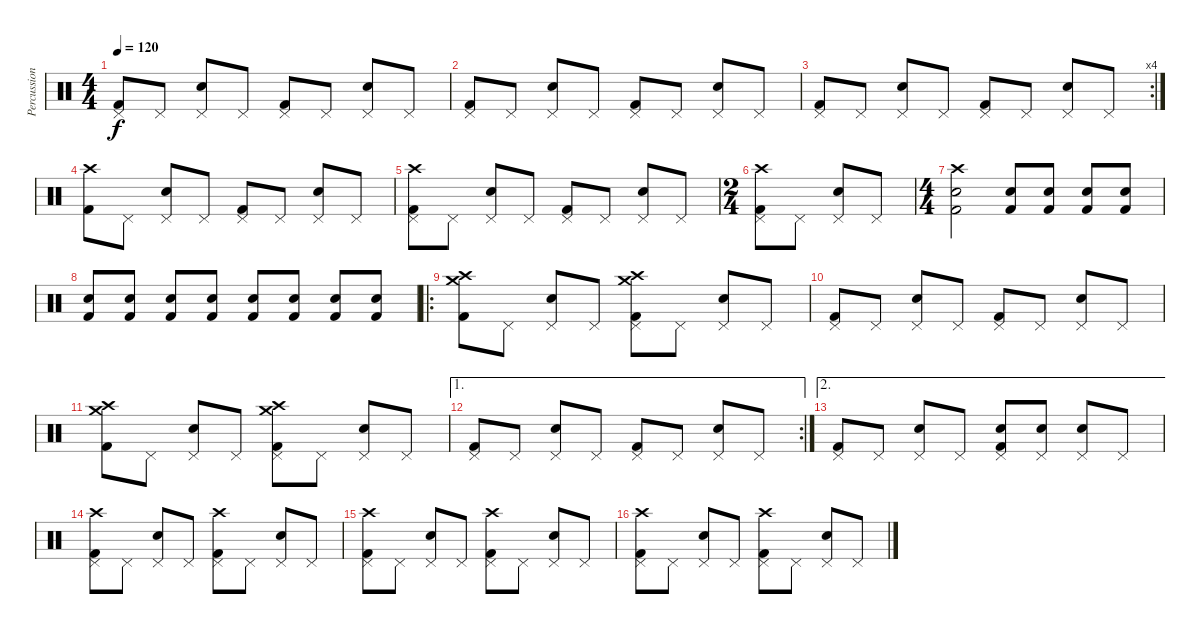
\track ("Percussions" "Percussion") {instrument percussion}
\staff {score}
\articulation defaults
\ts (4 4)
\tempo 120
\clef neutral
\ks c
("Pedal Hi-Hat (hit)" "Kick (hit) 2").8{dy f} "Pedal Hi-Hat (hit)".8 ("Pedal Hi-Hat (hit)" "Snare (hit) 2").8 "Pedal Hi-Hat (hit)".8 ("Pedal Hi-Hat (hit)" "Kick (hit) 2").8 "Pedal Hi-Hat (hit)".8 ("Pedal Hi-Hat (hit)" "Snare (hit) 2").8 "Pedal Hi-Hat (hit)".8 |
("Pedal Hi-Hat (hit)" "Kick (hit) 2").8 "Pedal Hi-Hat (hit)".8 ("Pedal Hi-Hat (hit)" "Snare (hit) 2").8 "Pedal Hi-Hat (hit)".8 ("Pedal Hi-Hat (hit)" "Kick (hit) 2").8 "Pedal Hi-Hat (hit)".8 ("Pedal Hi-Hat (hit)" "Snare (hit) 2").8 "Pedal Hi-Hat (hit)".8 |
\rc 4
("Pedal Hi-Hat (hit)" "Kick (hit) 2").8 "Pedal Hi-Hat (hit)".8 ("Pedal Hi-Hat (hit)" "Snare (hit) 2").8 "Pedal Hi-Hat (hit)".8 ("Pedal Hi-Hat (hit)" "Kick (hit) 2").8 "Pedal Hi-Hat (hit)".8 ("Pedal Hi-Hat (hit)" "Snare (hit) 2").8 "Pedal Hi-Hat (hit)".8 |
("Crash high (hit)" "Kick (hit) 2").8 "Pedal Hi-Hat (hit)".8 ("Pedal Hi-Hat (hit)" "Snare (hit) 2").8 "Pedal Hi-Hat (hit)".8 ("Pedal Hi-Hat (hit)" "Kick (hit) 2").8 "Pedal Hi-Hat (hit)".8 ("Pedal Hi-Hat (hit)" "Snare (hit) 2").8 "Pedal Hi-Hat (hit)".8 |
("Pedal Hi-Hat (hit)" "Crash high (hit)" "Kick (hit) 2").8 "Pedal Hi-Hat (hit)".8 ("Pedal Hi-Hat (hit)" "Snare (hit) 2").8 "Pedal Hi-Hat (hit)".8 ("Pedal Hi-Hat (hit)" "Kick (hit) 2").8 "Pedal Hi-Hat (hit)".8 ("Pedal Hi-Hat (hit)" "Snare (hit) 2").8 "Pedal Hi-Hat (hit)".8 |
\ts (2 4)
("Pedal Hi-Hat (hit)" "Crash high (hit)" "Kick (hit) 2").8 "Pedal Hi-Hat (hit)".8 ("Pedal Hi-Hat (hit)" "Snare (hit) 2").8 "Pedal Hi-Hat (hit)".8 |
\ts (4 4)
("Crash high (hit)" "Kick (hit) 2" "Snare (hit) 2").2 ("Kick (hit) 2" "Snare (hit) 2").8{volume 3} ("Kick (hit) 2" "Snare (hit) 2").8{volume 16} ("Kick (hit) 2" "Snare (hit) 2").8 ("Kick (hit) 2" "Snare (hit) 2").8 |
("Kick (hit) 2" "Snare (hit) 2").8 ("Kick (hit) 2" "Snare (hit) 2").8 ("Kick (hit) 2" "Snare (hit) 2").8 ("Kick (hit) 2" "Snare (hit) 2").8 ("Kick (hit) 2" "Snare (hit) 2").8 ("Kick (hit) 2" "Snare (hit) 2").8 ("Kick (hit) 2" "Snare (hit) 2").8 ("Kick (hit) 2" "Snare (hit) 2").8 |
\ro
("Crash high (hit)" "Crash medium (hit)" "Kick (hit) 2").8 "Pedal Hi-Hat (hit)".8 ("Pedal Hi-Hat (hit)" "Snare (hit) 2").8 "Pedal Hi-Hat (hit)".8 ("Pedal Hi-Hat (hit)" "Crash high (hit)" "Crash medium (hit)" "Kick (hit) 2").8 "Pedal Hi-Hat (hit)".8 ("Pedal Hi-Hat (hit)" "Snare (hit) 2").8 "Pedal Hi-Hat (hit)".8 |
("Pedal Hi-Hat (hit)" "Kick (hit) 2").8 "Pedal Hi-Hat (hit)".8 ("Pedal Hi-Hat (hit)" "Snare (hit) 2").8 "Pedal Hi-Hat (hit)".8 ("Pedal Hi-Hat (hit)" "Kick (hit) 2").8 "Pedal Hi-Hat (hit)".8 ("Pedal Hi-Hat (hit)" "Snare (hit) 2").8 "Pedal Hi-Hat (hit)".8 |
("Crash high (hit)" "Crash medium (hit)" "Kick (hit) 2").8 "Pedal Hi-Hat (hit)".8 ("Pedal Hi-Hat (hit)" "Snare (hit) 2").8 "Pedal Hi-Hat (hit)".8 ("Pedal Hi-Hat (hit)" "Crash high (hit)" "Crash medium (hit)" "Kick (hit) 2").8 "Pedal Hi-Hat (hit)".8 ("Pedal Hi-Hat (hit)" "Snare (hit) 2").8 "Pedal Hi-Hat (hit)".8 |
\ae 1
\rc 2
("Pedal Hi-Hat (hit)" "Kick (hit) 2").8 "Pedal Hi-Hat (hit)".8 ("Pedal Hi-Hat (hit)" "Snare (hit) 2").8 "Pedal Hi-Hat (hit)".8 ("Pedal Hi-Hat (hit)" "Kick (hit) 2").8 "Pedal Hi-Hat (hit)".8 ("Pedal Hi-Hat (hit)" "Snare (hit) 2").8 "Pedal Hi-Hat (hit)".8 |
\ae 2
("Pedal Hi-Hat (hit)" "Kick (hit) 2").8 "Pedal Hi-Hat (hit)".8 ("Pedal Hi-Hat (hit)" "Snare (hit) 2").8 "Pedal Hi-Hat (hit)".8 ("Pedal Hi-Hat (hit)" "Snare (hit) 2" "Kick (hit) 2").8 ("Pedal Hi-Hat (hit)" "Snare (hit) 2").8 ("Pedal Hi-Hat (hit)" "Snare (hit) 2").8 "Pedal Hi-Hat (hit)".8 |
("Pedal Hi-Hat (hit)" "Crash high (hit)" "Kick (hit) 2").8 "Pedal Hi-Hat (hit)".8 ("Pedal Hi-Hat (hit)" "Snare (hit) 2").8 "Pedal Hi-Hat (hit)".8 ("Pedal Hi-Hat (hit)" "Crash high (hit)" "Kick (hit) 2").8 "Pedal Hi-Hat (hit)".8 ("Pedal Hi-Hat (hit)" "Snare (hit) 2").8 "Pedal Hi-Hat (hit)".8 |
("Pedal Hi-Hat (hit)" "Crash high (hit)" "Kick (hit) 2").8 "Pedal Hi-Hat (hit)".8 ("Pedal Hi-Hat (hit)" "Snare (hit) 2").8 "Pedal Hi-Hat (hit)".8 ("Pedal Hi-Hat (hit)" "Crash high (hit)" "Kick (hit) 2").8 "Pedal Hi-Hat (hit)".8 ("Pedal Hi-Hat (hit)" "Snare (hit) 2").8 "Pedal Hi-Hat (hit)".8 |
("Pedal Hi-Hat (hit)" "Crash high (hit)" "Kick (hit) 2").8 "Pedal Hi-Hat (hit)".8 ("Pedal Hi-Hat (hit)" "Snare (hit) 2").8 "Pedal Hi-Hat (hit)".8 ("Pedal Hi-Hat (hit)" "Crash high (hit)" "Kick (hit) 2").8 "Pedal Hi-Hat (hit)".8 ("Pedal Hi-Hat (hit)" "Snare (hit) 2").8 "Pedal Hi-Hat (hit)".8
